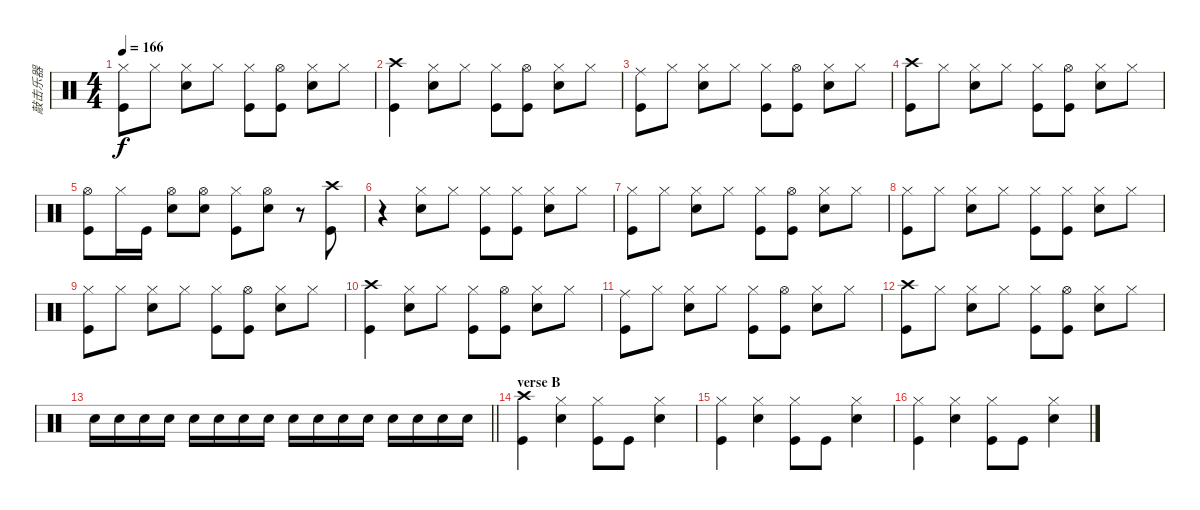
\track ("敲击乐器" "敲击乐器") {instrument percussion}
\staff {score}
\articulation defaults
\ts (4 4)
\tempo 166
\clef neutral
\ks c
("Hi-Hat (closed)" "Kick (hit)").8{dy f} "Hi-Hat (closed)".8 ("Hi-Hat (closed)" "Snare (hit) 2").8 "Hi-Hat (closed)".8 ("Hi-Hat (closed)" "Kick (hit)").8 ("Hi-Hat (open)" "Kick (hit)").8 ("Hi-Hat (closed)" "Snare (hit) 2").8 "Hi-Hat (closed)".8 |
("Crash high (hit)" "Kick (hit)").4 ("Hi-Hat (closed)" "Snare (hit) 2").8 "Hi-Hat (closed)".8 ("Hi-Hat (closed)" "Kick (hit)").8 ("Hi-Hat (open)" "Kick (hit)").8 ("Hi-Hat (closed)" "Snare (hit) 2").8 "Hi-Hat (closed)".8 |
("Ride (middle)" "Kick (hit)").8 "Hi-Hat (closed)".8 ("Hi-Hat (closed)" "Snare (hit) 2").8 "Hi-Hat (closed)".8 ("Hi-Hat (closed)" "Kick (hit)").8 ("Hi-Hat (open)" "Kick (hit)").8 ("Hi-Hat (closed)" "Snare (hit) 2").8 "Hi-Hat (closed)".8 |
("Crash high (hit)" "Kick (hit)").8 "Hi-Hat (closed)".8 ("Hi-Hat (closed)" "Snare (hit) 2").8 "Hi-Hat (closed)".8 ("Hi-Hat (closed)" "Kick (hit)").8 ("Hi-Hat (open)" "Kick (hit)").8 ("Hi-Hat (closed)" "Snare (hit) 2").8 "Hi-Hat (closed)".8 |
("Hi-Hat (open)" "Kick (hit)").8 "Hi-Hat (closed)".16 "Kick (hit)".16 ("Hi-Hat (open)" "Snare (hit) 2").8 ("Hi-Hat (open)" "Snare (hit) 2").8 ("Hi-Hat (closed)" "Kick (hit)").8 ("Hi-Hat (open)" "Snare (hit) 2").8 r.8 ("Crash high (hit)" "Kick (hit)").8 |
r.4 ("Hi-Hat (closed)" "Snare (hit) 2").8 "Hi-Hat (closed)".8 ("Hi-Hat (closed)" "Kick (hit)").8 ("Hi-Hat (closed)" "Kick (hit)").8 ("Hi-Hat (closed)" "Snare (hit) 2").8 "Hi-Hat (closed)".8 |
("Hi-Hat (closed)" "Kick (hit)").8 "Hi-Hat (closed)".8 ("Hi-Hat (closed)" "Snare (hit) 2").8 "Hi-Hat (closed)".8 ("Hi-Hat (closed)" "Kick (hit)").8 ("Hi-Hat (open)" "Kick (hit)").8 ("Hi-Hat (closed)" "Snare (hit) 2").8 "Hi-Hat (closed)".8 |
("Hi-Hat (closed)" "Kick (hit)").8 "Hi-Hat (closed)".8 ("Hi-Hat (closed)" "Snare (hit) 2").8 "Hi-Hat (closed)".8 ("Hi-Hat (closed)" "Kick (hit)").8 ("Hi-Hat (closed)" "Kick (hit)").8 ("Hi-Hat (closed)" "Snare (hit) 2").8 "Hi-Hat (closed)".8 |
("Hi-Hat (closed)" "Kick (hit)").8 "Hi-Hat (closed)".8 ("Hi-Hat (closed)" "Snare (hit) 2").8 "Hi-Hat (closed)".8 ("Hi-Hat (closed)" "Kick (hit)").8 ("Hi-Hat (open)" "Kick (hit)").8 ("Hi-Hat (closed)" "Snare (hit) 2").8 "Hi-Hat (closed)".8 |
("Crash high (hit)" "Kick (hit)").4 ("Hi-Hat (closed)" "Snare (hit) 2").8 "Hi-Hat (closed)".8 ("Hi-Hat (closed)" "Kick (hit)").8 ("Hi-Hat (open)" "Kick (hit)").8 ("Hi-Hat (closed)" "Snare (hit) 2").8 "Hi-Hat (closed)".8 |
("Ride (middle)" "Kick (hit)").8 "Hi-Hat (closed)".8 ("Hi-Hat (closed)" "Snare (hit) 2").8 "Hi-Hat (closed)".8 ("Hi-Hat (closed)" "Kick (hit)").8 ("Hi-Hat (open)" "Kick (hit)").8 ("Hi-Hat (closed)" "Snare (hit) 2").8 "Hi-Hat (closed)".8 |
("Crash high (hit)" "Kick (hit)").8 "Hi-Hat (closed)".8 ("Hi-Hat (closed)" "Snare (hit) 2").8 "Hi-Hat (closed)".8 ("Hi-Hat (closed)" "Kick (hit)").8 ("Hi-Hat (open)" "Kick (hit)").8 ("Hi-Hat (closed)" "Snare (hit) 2").8 "Hi-Hat (closed)".8 |
\barLineRight lightlight "Snare (hit) 2".16 "Snare (hit) 2".16 "Snare (hit) 2".16 "Snare (hit) 2".16 "Snare (hit) 2".16 "Snare (hit) 2".16 "Snare (hit) 2".16 "Snare (hit) 2".16 "Snare (hit) 2".16 "Snare (hit) 2".16 "Snare (hit) 2".16 "Snare (hit) 2".16 "Snare (hit) 2".16 "Snare (hit) 2".16 "Snare (hit) 2".16 "Snare (hit) 2".16
|
\section ("" "verse B")
("Kick (hit)" "Crash high (hit)").4 ("Snare (hit) 2" "Hi-Hat (closed)").4 ("Kick (hit)" "Hi-Hat (closed)").8 "Kick (hit)".8 ("Snare (hit) 2" "Hi-Hat (closed)").4 |
("Hi-Hat (closed)" "Kick (hit)").4 ("Hi-Hat (closed)" "Snare (hit) 2").4 ("Hi-Hat (closed)" "Kick (hit)").8 "Kick (hit)".8 ("Snare (hit) 2" "Hi-Hat (closed)").4 |
("Hi-Hat (closed)" "Kick (hit)").4 ("Hi-Hat (closed)" "Snare (hit) 2").4 ("Hi-Hat (closed)" "Kick (hit)").8 "Kick (hit)".8 ("Snare (hit) 2" "Hi-Hat (closed)").4
